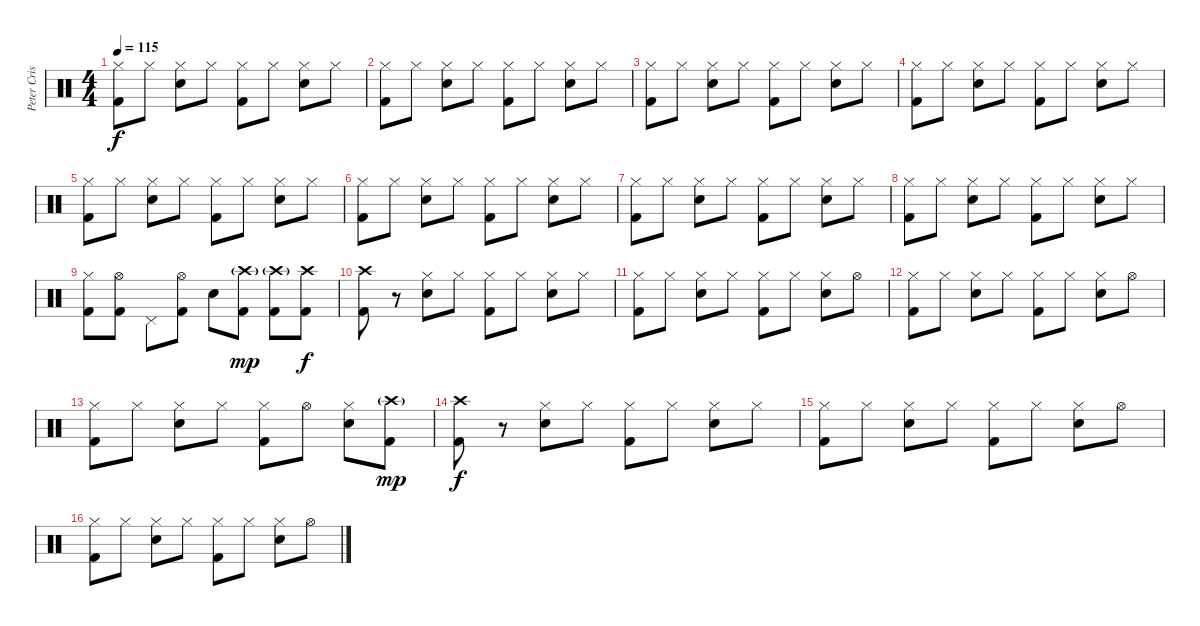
\track ("Peter Criss" "Peter Cris") {instrument percussion}
\staff {score}
\articulation defaults
\ts (4 4)
\tempo 115
\clef neutral
\ks c
("Hi-Hat (closed)" "Kick (hit) 2").8{dy f} "Hi-Hat (closed)".8 ("Hi-Hat (closed)" "Electric Snare (hit)").8 "Hi-Hat (closed)".8 ("Hi-Hat (closed)" "Kick (hit) 2").8 "Hi-Hat (closed)".8 ("Hi-Hat (closed)" "Electric Snare (hit)").8 "Hi-Hat (closed)".8 |
("Hi-Hat (closed)" "Kick (hit) 2").8 "Hi-Hat (closed)".8 ("Hi-Hat (closed)" "Electric Snare (hit)").8 "Hi-Hat (closed)".8 ("Hi-Hat (closed)" "Kick (hit) 2").8 "Hi-Hat (closed)".8 ("Hi-Hat (closed)" "Electric Snare (hit)").8 "Hi-Hat (closed)".8 |
("Hi-Hat (closed)" "Kick (hit) 2").8 "Hi-Hat (closed)".8 ("Hi-Hat (closed)" "Electric Snare (hit)").8 "Hi-Hat (closed)".8 ("Hi-Hat (closed)" "Kick (hit) 2").8 "Hi-Hat (closed)".8 ("Hi-Hat (closed)" "Electric Snare (hit)").8 "Hi-Hat (closed)".8 |
("Hi-Hat (closed)" "Kick (hit) 2").8 "Hi-Hat (closed)".8 ("Hi-Hat (closed)" "Electric Snare (hit)").8 "Hi-Hat (closed)".8 ("Hi-Hat (closed)" "Kick (hit) 2").8 "Hi-Hat (closed)".8 ("Hi-Hat (closed)" "Electric Snare (hit)").8 "Hi-Hat (closed)".8 |
("Hi-Hat (closed)" "Kick (hit) 2").8 "Hi-Hat (closed)".8 ("Hi-Hat (closed)" "Electric Snare (hit)").8 "Hi-Hat (closed)".8 ("Hi-Hat (closed)" "Kick (hit) 2").8 "Hi-Hat (closed)".8 ("Hi-Hat (closed)" "Electric Snare (hit)").8 "Hi-Hat (closed)".8 |
("Hi-Hat (closed)" "Kick (hit) 2").8 "Hi-Hat (closed)".8 ("Hi-Hat (closed)" "Electric Snare (hit)").8 "Hi-Hat (closed)".8 ("Hi-Hat (closed)" "Kick (hit) 2").8 "Hi-Hat (closed)".8 ("Hi-Hat (closed)" "Electric Snare (hit)").8 "Hi-Hat (closed)".8 |
("Hi-Hat (closed)" "Kick (hit) 2").8 "Hi-Hat (closed)".8 ("Hi-Hat (closed)" "Electric Snare (hit)").8 "Hi-Hat (closed)".8 ("Hi-Hat (closed)" "Kick (hit) 2").8 "Hi-Hat (closed)".8 ("Hi-Hat (closed)" "Electric Snare (hit)").8 "Hi-Hat (closed)".8 |
("Hi-Hat (closed)" "Kick (hit) 2").8 "Hi-Hat (closed)".8 ("Hi-Hat (closed)" "Electric Snare (hit)").8 "Hi-Hat (closed)".8 ("Hi-Hat (closed)" "Kick (hit) 2").8 "Hi-Hat (closed)".8 ("Hi-Hat (closed)" "Electric Snare (hit)").8 "Hi-Hat (closed)".8 |
("Hi-Hat (closed)" "Kick (hit) 2").8 ("Hi-Hat (open)" "Kick (hit) 2").8 "Pedal Hi-Hat (hit)".8 ("Hi-Hat (open)" "Kick (hit) 2").8 "Electric Snare (hit)".8 ("Crash high (hit)"{g} "Kick (hit) 2").8{dy mp} ("Crash high (hit)"{g} "Kick (hit) 2").8 ("Crash high (hit)" "Kick (hit) 2").8{dy f} |
("Crash high (hit)" "Kick (hit) 2").8 r.8 ("Hi-Hat (closed)" "Electric Snare (hit)").8 "Hi-Hat (closed)".8 ("Hi-Hat (closed)" "Kick (hit) 2").8 "Hi-Hat (closed)".8 ("Hi-Hat (closed)" "Electric Snare (hit)").8 "Hi-Hat (closed)".8 |
("Hi-Hat (closed)" "Kick (hit) 2").8 "Hi-Hat (closed)".8 ("Hi-Hat (closed)" "Electric Snare (hit)").8 "Hi-Hat (closed)".8 ("Hi-Hat (closed)" "Kick (hit) 2").8 "Hi-Hat (closed)".8 ("Hi-Hat (closed)" "Electric Snare (hit)").8 "Hi-Hat (open)".8 |
("Hi-Hat (closed)" "Kick (hit) 2").8 "Hi-Hat (closed)".8 ("Hi-Hat (closed)" "Electric Snare (hit)").8 "Hi-Hat (closed)".8 ("Hi-Hat (closed)" "Kick (hit) 2").8 "Hi-Hat (closed)".8 ("Hi-Hat (closed)" "Electric Snare (hit)").8 "Hi-Hat (open)".8 |
("Hi-Hat (closed)" "Kick (hit) 2").8 "Hi-Hat (closed)".8 ("Hi-Hat (closed)" "Electric Snare (hit)").8 "Hi-Hat (closed)".8 ("Hi-Hat (closed)" "Kick (hit) 2").8 "Hi-Hat (open)".8 ("Hi-Hat (closed)" "Electric Snare (hit)").8 ("Crash high (hit)"{g} "Kick (hit) 2").8{dy mp} |
("Crash high (hit)" "Kick (hit) 2").8{dy f} r.8 ("Hi-Hat (closed)" "Electric Snare (hit)").8 "Hi-Hat (closed)".8 ("Hi-Hat (closed)" "Kick (hit) 2").8 "Hi-Hat (closed)".8 ("Hi-Hat (closed)" "Electric Snare (hit)").8 "Hi-Hat (closed)".8 |
("Hi-Hat (closed)" "Kick (hit) 2").8 "Hi-Hat (closed)".8 ("Hi-Hat (closed)" "Electric Snare (hit)").8 "Hi-Hat (closed)".8 ("Hi-Hat (closed)" "Kick (hit) 2").8 "Hi-Hat (closed)".8 ("Hi-Hat (closed)" "Electric Snare (hit)").8 "Hi-Hat (open)".8 |
("Hi-Hat (closed)" "Kick (hit) 2").8 "Hi-Hat (closed)".8 ("Hi-Hat (closed)" "Electric Snare (hit)").8 "Hi-Hat (closed)".8 ("Hi-Hat (closed)" "Kick (hit) 2").8 "Hi-Hat (closed)".8 ("Hi-Hat (closed)" "Electric Snare (hit)").8 "Hi-Hat (open)".8
